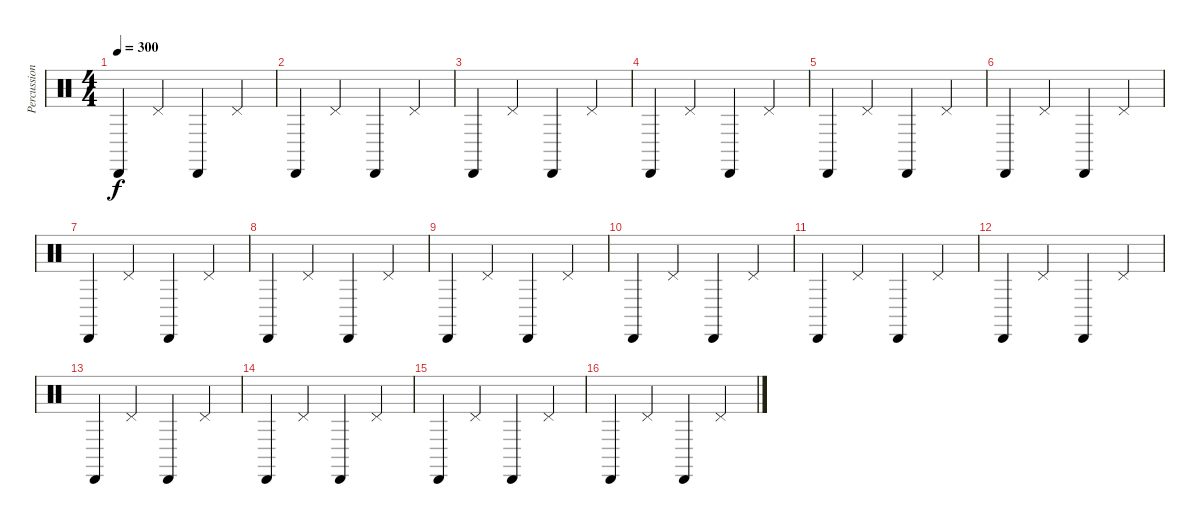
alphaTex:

\track ("Percussions" "Percussion") {instrument percussion}
\staff {score}
\articulation defaults
\ts (4 4)
\tempo 300
\clef neutral
\ks c "Cabasa (hit)".4{dy f} "Pedal Hi-Hat (hit)".4 "Cabasa (hit)".4 "Pedal Hi-Hat (hit)".4
|
"Cabasa (hit)".4 "Pedal Hi-Hat (hit)".4 "Cabasa (hit)".4 "Pedal Hi-Hat (hit)".4 |
"Cabasa (hit)".4 "Pedal Hi-Hat (hit)".4 "Cabasa (hit)".4 "Pedal Hi-Hat (hit)".4 |
"Cabasa (hit)".4 "Pedal Hi-Hat (hit)".4 "Cabasa (hit)".4 "Pedal Hi-Hat (hit)".4 |
"Cabasa (hit)".4 "Pedal Hi-Hat (hit)".4 "Cabasa (hit)".4 "Pedal Hi-Hat (hit)".4 |
"Cabasa (hit)".4 "Pedal Hi-Hat (hit)".4 "Cabasa (hit)".4 "Pedal Hi-Hat (hit)".4 |
"Cabasa (hit)".4 "Pedal Hi-Hat (hit)".4 "Cabasa (hit)".4 "Pedal Hi-Hat (hit)".4 |
"Cabasa (hit)".4 "Pedal Hi-Hat (hit)".4 "Cabasa (hit)".4 "Pedal Hi-Hat (hit)".4 |
"Cabasa (hit)".4 "Pedal Hi-Hat (hit)".4 "Cabasa (hit)".4 "Pedal Hi-Hat (hit)".4 |
"Cabasa (hit)".4 "Pedal Hi-Hat (hit)".4 "Cabasa (hit)".4 "Pedal Hi-Hat (hit)".4 |
"Cabasa (hit)".4 "Pedal Hi-Hat (hit)".4 "Cabasa (hit)".4 "Pedal Hi-Hat (hit)".4 |
"Cabasa (hit)".4 "Pedal Hi-Hat (hit)".4 "Cabasa (hit)".4 "Pedal Hi-Hat (hit)".4 |
"Cabasa (hit)".4 "Pedal Hi-Hat (hit)".4 "Cabasa (hit)".4 "Pedal Hi-Hat (hit)".4 |
"Cabasa (hit)".4 "Pedal Hi-Hat (hit)".4 "Cabasa (hit)".4 "Pedal Hi-Hat (hit)".4 |
"Cabasa (hit)".4 "Pedal Hi-Hat (hit)".4 "Cabasa (hit)".4 "Pedal Hi-Hat (hit)".4 |
"Cabasa (hit)".4 "Pedal Hi-Hat (hit)".4 "Cabasa (hit)".4 "Pedal Hi-Hat (hit)".4
